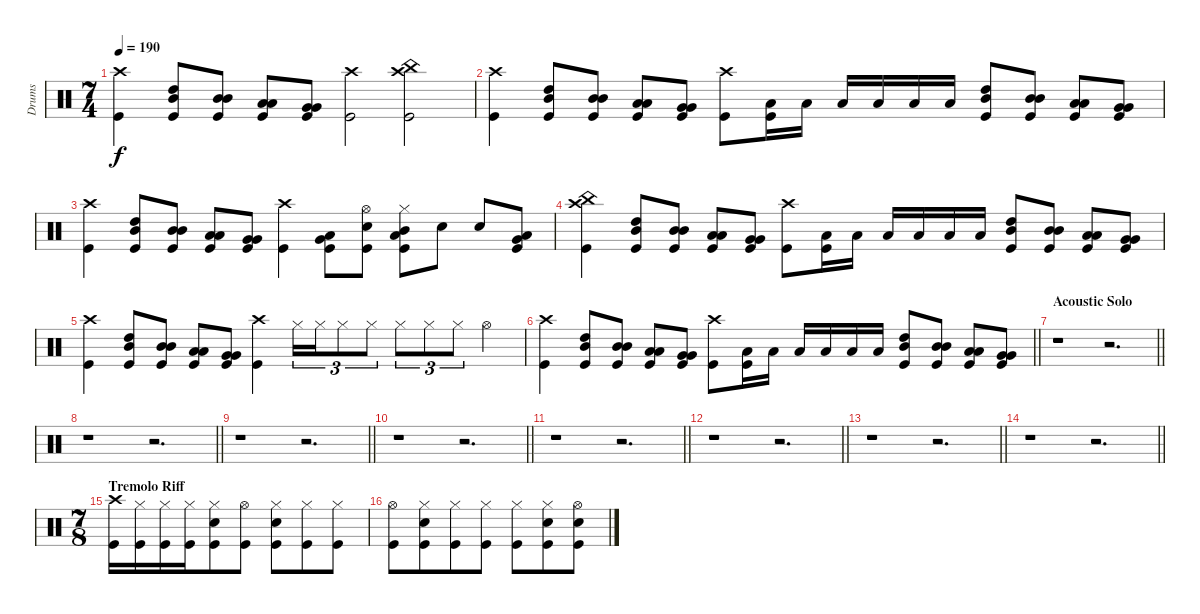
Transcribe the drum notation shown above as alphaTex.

\track ("Drums" "Drums") {instrument percussion}
\staff {score}
\articulation defaults
\ts (7 4)
\tempo 190
\clef neutral
\ks c
("Crash high (hit)" "Kick (hit)").4{dy f} ("Mid Tom (hit)" "Kick (hit)" "High Tom (hit)").8 ("Kick (hit)" "Mid Tom (hit)" "Mid Tom (hit)").8 ("Kick (hit)" "Low Tom (hit)" "Low Tom (hit)").8 ("Kick (hit)" "Very Low Tom (hit)" "Very Low Tom (hit)").8 ("Crash high (hit)" "Kick (hit)").2 ("China (hit)" "Kick (hit)" "Crash high (hit)").2 |
("Crash high (hit)" "Kick (hit)").4 ("Mid Tom (hit)" "Kick (hit)" "High Tom (hit)").8 ("Kick (hit)" "Mid Tom (hit)" "Mid Tom (hit)").8 ("Kick (hit)" "Low Tom (hit)" "Low Tom (hit)").8 ("Kick (hit)" "Very Low Tom (hit)" "Very Low Tom (hit)").8 ("Kick (hit)" "Crash high (hit)").8 ("Kick (hit)" "Low Tom (hit)").16 "Low Tom (hit)".16 "Low Tom (hit)".16 "Low Tom (hit)".16 "Low Tom (hit)".16 "Low Tom (hit)".16 ("Mid Tom (hit)" "Kick (hit)" "High Tom (hit)").8 ("Kick (hit)" "Mid Tom (hit)" "Mid Tom (hit)").8 ("Kick (hit)" "Low Tom (hit)" "Low Tom (hit)").8 ("Kick (hit)" "Very Low Tom (hit)" "Very Low Tom (hit)").8 |
("Crash high (hit)" "Kick (hit)").4 ("Mid Tom (hit)" "Kick (hit)" "High Tom (hit)").8 ("Kick (hit)" "Mid Tom (hit)" "Mid Tom (hit)").8 ("Kick (hit)" "Low Tom (hit)" "Low Tom (hit)").8 ("Kick (hit)" "Very Low Tom (hit)" "Very Low Tom (hit)").8 ("Crash high (hit)" "Kick (hit)").4 ("Low Tom (hit)" "Very Low Tom (hit)" "Kick (hit)").8 ("Snare (hit) 2" "Hi-Hat (open)" "Kick (hit)").8 ("Mid Tom (hit)" "Low Tom (hit)" "Hi-Hat (closed)" "Kick (hit)").8 "Snare (hit) 2".8 "Snare (hit) 2".8 ("Low Tom (hit)" "Very Low Tom (hit)" "Kick (hit)").8 |
("Crash high (hit)" "Kick (hit)" "China (hit)").4 ("Mid Tom (hit)" "Kick (hit)" "High Tom (hit)").8 ("Kick (hit)" "Mid Tom (hit)" "Mid Tom (hit)").8 ("Kick (hit)" "Low Tom (hit)" "Low Tom (hit)").8 ("Kick (hit)" "Very Low Tom (hit)" "Very Low Tom (hit)").8 ("Kick (hit)" "Crash high (hit)").8 ("Kick (hit)" "Low Tom (hit)").16 "Low Tom (hit)".16 "Low Tom (hit)".16 "Low Tom (hit)".16 "Low Tom (hit)".16 "Low Tom (hit)".16 ("Mid Tom (hit)" "Kick (hit)" "High Tom (hit)").8 ("Kick (hit)" "Mid Tom (hit)" "Mid Tom (hit)").8 ("Kick (hit)" "Low Tom (hit)" "Low Tom (hit)").8 ("Kick (hit)" "Very Low Tom (hit)" "Very Low Tom (hit)").8 |
("Crash high (hit)" "Kick (hit)").4 ("Mid Tom (hit)" "Kick (hit)" "High Tom (hit)").8 ("Kick (hit)" "Mid Tom (hit)" "Mid Tom (hit)").8 ("Kick (hit)" "Low Tom (hit)" "Low Tom (hit)").8 ("Kick (hit)" "Very Low Tom (hit)" "Very Low Tom (hit)").8 ("Crash high (hit)" "Kick (hit)").4 "Hi-Hat (closed)".16{tu (3 2)} "Hi-Hat (closed)".16{tu (3 2)} "Hi-Hat (closed)".8{tu (3 2)} "Hi-Hat (closed)".8{tu (3 2)} "Hi-Hat (closed)".8{tu (3 2)} "Hi-Hat (closed)".8{tu (3 2)} "Hi-Hat (closed)".8{tu (3 2)} "Hi-Hat (open)".4 |
\barLineRight lightlight
("Crash high (hit)" "Kick (hit)").4 ("Mid Tom (hit)" "Kick (hit)" "High Tom (hit)").8 ("Kick (hit)" "Mid Tom (hit)" "Mid Tom (hit)").8 ("Kick (hit)" "Low Tom (hit)" "Low Tom (hit)").8 ("Kick (hit)" "Very Low Tom (hit)" "Very Low Tom (hit)").8 ("Kick (hit)" "Crash high (hit)").8 ("Kick (hit)" "Low Tom (hit)").16 "Low Tom (hit)".16 "Low Tom (hit)".16 "Low Tom (hit)".16 "Low Tom (hit)".16 "Low Tom (hit)".16 ("Mid Tom (hit)" "Kick (hit)" "High Tom (hit)").8 ("Kick (hit)" "Mid Tom (hit)" "Mid Tom (hit)").8 ("Kick (hit)" "Low Tom (hit)" "Low Tom (hit)").8 ("Kick (hit)" "Very Low Tom (hit)" "Very Low Tom (hit)").8 |
\section ("" "Acoustic Solo")
\barLineRight lightlight
r.1 r.2{d} |
\barLineRight lightlight
r.1 r.2{d} |
\barLineRight lightlight
r.1 r.2{d} |
\barLineRight lightlight
r.1 r.2{d} |
\barLineRight lightlight
r.1 r.2{d} |
\barLineRight lightlight
r.1 r.2{d} |
\barLineRight lightlight
r.1 r.2{d} |
\barLineRight lightlight
r.1 r.2{d} |
\ts (7 8)
\section ("" "Tremolo Riff")
("Kick (hit)" "Crash high (hit)").16 ("Kick (hit)" "Hi-Hat (closed)").16 ("Kick (hit)" "Hi-Hat (closed)").16 ("Kick (hit)" "Hi-Hat (closed)").16 ("Kick (hit)" "Snare (hit) 2" "Hi-Hat (closed)").8 ("Kick (hit)" "Hi-Hat (open)").8 ("Kick (hit)" "Snare (hit) 2" "Hi-Hat (closed)").8 ("Hi-Hat (closed)" "Kick (hit)").8 ("Kick (hit)" "Hi-Hat (closed)").8 |
("Kick (hit)" "Hi-Hat (open)").8 ("Kick (hit)" "Snare (hit) 2" "Hi-Hat (closed)").8 ("Kick (hit)" "Hi-Hat (closed)").8 ("Kick (hit)" "Hi-Hat (closed)").8 ("Kick (hit)" "Hi-Hat (closed)").8 ("Kick (hit)" "Snare (hit) 2" "Hi-Hat (closed)").8 ("Kick (hit)" "Snare (hit) 2" "Hi-Hat (open)").8
